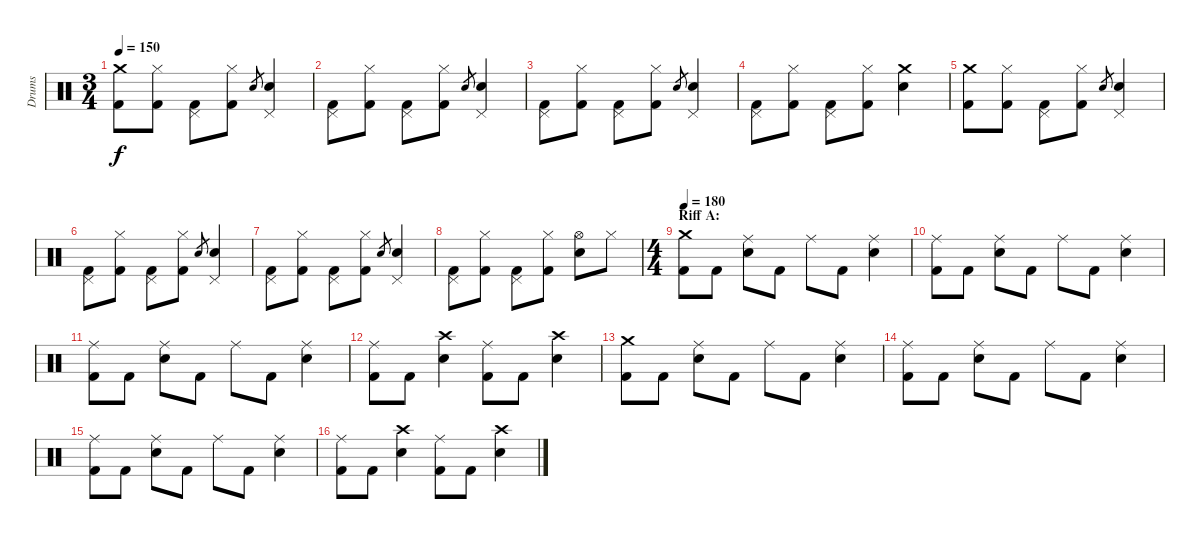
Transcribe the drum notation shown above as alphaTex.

\track ("Drums" "Drums") {instrument percussion}
\staff {score}
\articulation defaults
\ts (3 4)
\tempo 150
\clef neutral
\ks c
("Crash medium (hit)" "Kick (hit) 2").8{dy f} ("Hi-Hat (closed)" "Kick (hit) 2").8 ("Pedal Hi-Hat (hit)" "Kick (hit) 2").8 ("Hi-Hat (closed)" "Kick (hit) 2").8 "Electric Snare (hit)".8{gr} ("Pedal Hi-Hat (hit)" "Electric Snare (hit)").4 |
("Pedal Hi-Hat (hit)" "Kick (hit) 2").8 ("Hi-Hat (closed)" "Kick (hit) 2").8 ("Pedal Hi-Hat (hit)" "Kick (hit) 2").8 ("Hi-Hat (closed)" "Kick (hit) 2").8 "Electric Snare (hit)".8{gr} ("Pedal Hi-Hat (hit)" "Electric Snare (hit)").4 |
("Pedal Hi-Hat (hit)" "Kick (hit) 2").8 ("Hi-Hat (closed)" "Kick (hit) 2").8 ("Pedal Hi-Hat (hit)" "Kick (hit) 2").8 ("Hi-Hat (closed)" "Kick (hit) 2").8 "Electric Snare (hit)".8{gr} ("Pedal Hi-Hat (hit)" "Electric Snare (hit)").4 |
("Pedal Hi-Hat (hit)" "Kick (hit) 2").8 ("Hi-Hat (closed)" "Kick (hit) 2").8 ("Pedal Hi-Hat (hit)" "Kick (hit) 2").8 ("Hi-Hat (closed)" "Kick (hit) 2").8 ("Crash medium (hit)" "Electric Snare (hit)").4 |
("Crash medium (hit)" "Kick (hit) 2").8 ("Hi-Hat (closed)" "Kick (hit) 2").8 ("Pedal Hi-Hat (hit)" "Kick (hit) 2").8 ("Hi-Hat (closed)" "Kick (hit) 2").8 "Electric Snare (hit)".8{gr} ("Pedal Hi-Hat (hit)" "Electric Snare (hit)").4 |
("Pedal Hi-Hat (hit)" "Kick (hit) 2").8 ("Hi-Hat (closed)" "Kick (hit) 2").8 ("Pedal Hi-Hat (hit)" "Kick (hit) 2").8 ("Hi-Hat (closed)" "Kick (hit) 2").8 "Electric Snare (hit)".8{gr} ("Pedal Hi-Hat (hit)" "Electric Snare (hit)").4 |
("Pedal Hi-Hat (hit)" "Kick (hit) 2").8 ("Hi-Hat (closed)" "Kick (hit) 2").8 ("Pedal Hi-Hat (hit)" "Kick (hit) 2").8 ("Hi-Hat (closed)" "Kick (hit) 2").8 "Electric Snare (hit)".8{gr} ("Pedal Hi-Hat (hit)" "Electric Snare (hit)").4 |
("Pedal Hi-Hat (hit)" "Kick (hit) 2").8 ("Hi-Hat (closed)" "Kick (hit) 2").8 ("Pedal Hi-Hat (hit)" "Kick (hit) 2").8 ("Hi-Hat (closed)" "Kick (hit) 2").8 ("Hi-Hat (open)" "Electric Snare (hit)").8 "Hi-Hat (closed)".8 |
\ts (4 4)
\section ("" "Riff A:")
\tempo 180
("Crash medium (hit)" "Kick (hit) 2").8 "Kick (hit) 2".8 ("Ride (middle)" "Electric Snare (hit)").8 "Kick (hit) 2".8 "Ride (middle)".8 "Kick (hit) 2".8 ("Ride (middle)" "Electric Snare (hit)").4 |
("Ride (middle)" "Kick (hit) 2").8 "Kick (hit) 2".8 ("Ride (middle)" "Electric Snare (hit)").8 "Kick (hit) 2".8 "Ride (middle)".8 "Kick (hit) 2".8 ("Ride (middle)" "Electric Snare (hit)").4 |
("Ride (middle)" "Kick (hit) 2").8 "Kick (hit) 2".8 ("Ride (middle)" "Electric Snare (hit)").8 "Kick (hit) 2".8 "Ride (middle)".8 "Kick (hit) 2".8 ("Ride (middle)" "Electric Snare (hit)").4 |
("Ride (middle)" "Kick (hit) 2").8 "Kick (hit) 2".8 ("Crash high (hit)" "Electric Snare (hit)").4 ("Ride (middle)" "Kick (hit) 2").8 "Kick (hit) 2".8 ("Crash high (hit)" "Electric Snare (hit)").4 |
("Crash medium (hit)" "Kick (hit) 2").8 "Kick (hit) 2".8 ("Ride (middle)" "Electric Snare (hit)").8 "Kick (hit) 2".8 "Ride (middle)".8 "Kick (hit) 2".8 ("Ride (middle)" "Electric Snare (hit)").4 |
("Ride (middle)" "Kick (hit) 2").8 "Kick (hit) 2".8 ("Ride (middle)" "Electric Snare (hit)").8 "Kick (hit) 2".8 "Ride (middle)".8 "Kick (hit) 2".8 ("Ride (middle)" "Electric Snare (hit)").4 |
("Ride (middle)" "Kick (hit) 2").8 "Kick (hit) 2".8 ("Ride (middle)" "Electric Snare (hit)").8 "Kick (hit) 2".8 "Ride (middle)".8 "Kick (hit) 2".8 ("Ride (middle)" "Electric Snare (hit)").4 |
("Ride (middle)" "Kick (hit) 2").8 "Kick (hit) 2".8 ("Crash high (hit)" "Electric Snare (hit)").4 ("Ride (middle)" "Kick (hit) 2").8 "Kick (hit) 2".8 ("Crash high (hit)" "Electric Snare (hit)").4
